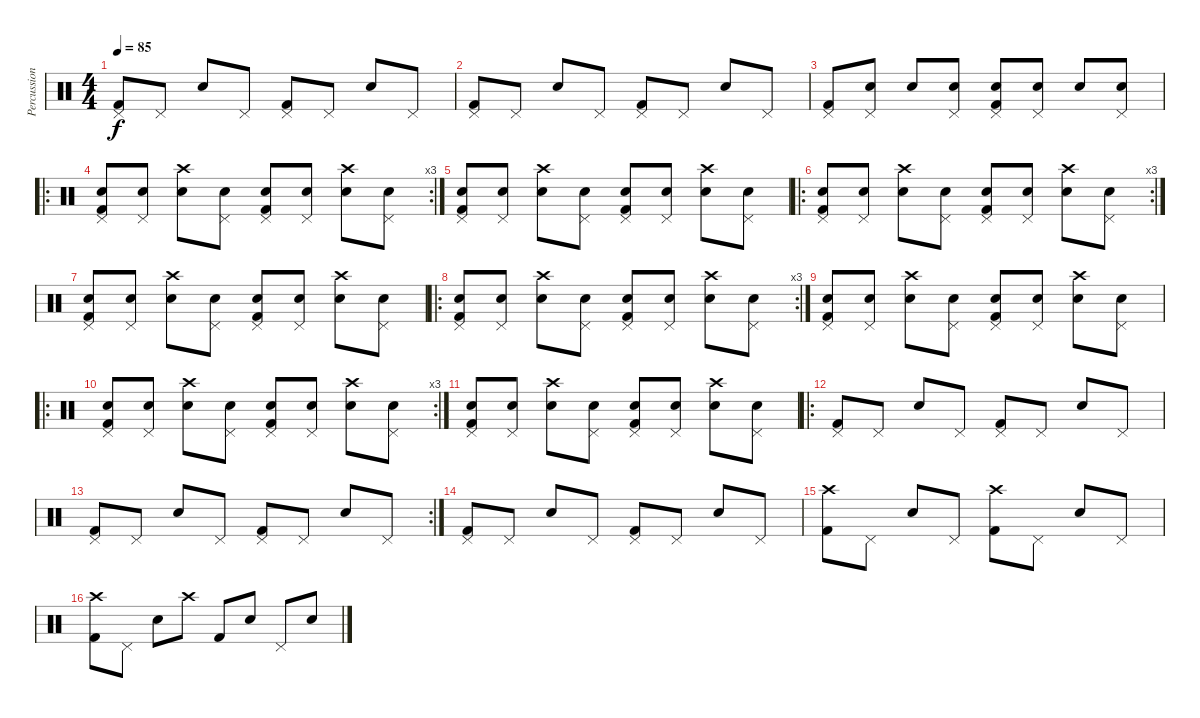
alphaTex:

\track ("Percussion" "Percussion") {instrument percussion}
\staff {score}
\articulation defaults
\ts (4 4)
\tempo 85
\clef neutral
\ks c
("Pedal Hi-Hat (hit)" "Kick (hit) 2").8{dy f} "Pedal Hi-Hat (hit)".8 "Snare (hit) 2".8 "Pedal Hi-Hat (hit)".8 ("Pedal Hi-Hat (hit)" "Kick (hit) 2").8 "Pedal Hi-Hat (hit)".8 "Snare (hit) 2".8 "Pedal Hi-Hat (hit)".8 |
("Pedal Hi-Hat (hit)" "Kick (hit) 2").8 "Pedal Hi-Hat (hit)".8 "Snare (hit) 2".8 "Pedal Hi-Hat (hit)".8 ("Pedal Hi-Hat (hit)" "Kick (hit) 2").8 "Pedal Hi-Hat (hit)".8 "Snare (hit) 2".8 "Pedal Hi-Hat (hit)".8 |
("Pedal Hi-Hat (hit)" "Kick (hit) 2").8 ("Snare (hit) 2" "Pedal Hi-Hat (hit)").8 "Snare (hit) 2".8 ("Snare (hit) 2" "Pedal Hi-Hat (hit)").8 ("Snare (hit) 2" "Pedal Hi-Hat (hit)" "Kick (hit) 2").8 ("Snare (hit) 2" "Pedal Hi-Hat (hit)").8 "Snare (hit) 2".8 ("Snare (hit) 2" "Pedal Hi-Hat (hit)").8 |
\ro
\rc 3
("Pedal Hi-Hat (hit)" "Snare (hit) 2" "Kick (hit) 2").8 ("Pedal Hi-Hat (hit)" "Snare (hit) 2").8 ("Snare (hit) 2" "Crash high (hit)").8 ("Pedal Hi-Hat (hit)" "Snare (hit) 2").8 ("Pedal Hi-Hat (hit)" "Snare (hit) 2" "Kick (hit) 2").8 ("Pedal Hi-Hat (hit)" "Snare (hit) 2").8 ("Snare (hit) 2" "Crash high (hit)").8 ("Pedal Hi-Hat (hit)" "Snare (hit) 2").8 |
("Pedal Hi-Hat (hit)" "Snare (hit) 2" "Kick (hit) 2").8 ("Pedal Hi-Hat (hit)" "Snare (hit) 2").8 ("Snare (hit) 2" "Crash high (hit)").8 ("Pedal Hi-Hat (hit)" "Snare (hit) 2").8 ("Pedal Hi-Hat (hit)" "Snare (hit) 2" "Kick (hit) 2").8 ("Pedal Hi-Hat (hit)" "Snare (hit) 2").8 ("Snare (hit) 2" "Crash high (hit)").8 ("Pedal Hi-Hat (hit)" "Snare (hit) 2").8 |
\ro
\rc 3
("Pedal Hi-Hat (hit)" "Snare (hit) 2" "Kick (hit) 2").8 ("Pedal Hi-Hat (hit)" "Snare (hit) 2").8 ("Snare (hit) 2" "Crash high (hit)").8 ("Pedal Hi-Hat (hit)" "Snare (hit) 2").8 ("Pedal Hi-Hat (hit)" "Snare (hit) 2" "Kick (hit) 2").8 ("Pedal Hi-Hat (hit)" "Snare (hit) 2").8 ("Snare (hit) 2" "Crash high (hit)").8 ("Pedal Hi-Hat (hit)" "Snare (hit) 2").8 |
("Pedal Hi-Hat (hit)" "Snare (hit) 2" "Kick (hit) 2").8 ("Pedal Hi-Hat (hit)" "Snare (hit) 2").8 ("Snare (hit) 2" "Crash high (hit)").8 ("Pedal Hi-Hat (hit)" "Snare (hit) 2").8 ("Pedal Hi-Hat (hit)" "Snare (hit) 2" "Kick (hit) 2").8 ("Pedal Hi-Hat (hit)" "Snare (hit) 2").8 ("Snare (hit) 2" "Crash high (hit)").8 ("Pedal Hi-Hat (hit)" "Snare (hit) 2").8 |
\ro
\rc 3
("Pedal Hi-Hat (hit)" "Snare (hit) 2" "Kick (hit) 2").8 ("Pedal Hi-Hat (hit)" "Snare (hit) 2").8 ("Snare (hit) 2" "Crash high (hit)").8 ("Pedal Hi-Hat (hit)" "Snare (hit) 2").8 ("Pedal Hi-Hat (hit)" "Snare (hit) 2" "Kick (hit) 2").8 ("Pedal Hi-Hat (hit)" "Snare (hit) 2").8 ("Snare (hit) 2" "Crash high (hit)").8 ("Pedal Hi-Hat (hit)" "Snare (hit) 2").8 |
("Pedal Hi-Hat (hit)" "Snare (hit) 2" "Kick (hit) 2").8 ("Pedal Hi-Hat (hit)" "Snare (hit) 2").8 ("Snare (hit) 2" "Crash high (hit)").8 ("Pedal Hi-Hat (hit)" "Snare (hit) 2").8 ("Pedal Hi-Hat (hit)" "Snare (hit) 2" "Kick (hit) 2").8 ("Pedal Hi-Hat (hit)" "Snare (hit) 2").8 ("Snare (hit) 2" "Crash high (hit)").8 ("Pedal Hi-Hat (hit)" "Snare (hit) 2").8 |
\ro
\rc 3
("Pedal Hi-Hat (hit)" "Snare (hit) 2" "Kick (hit) 2").8 ("Pedal Hi-Hat (hit)" "Snare (hit) 2").8 ("Snare (hit) 2" "Crash high (hit)").8 ("Pedal Hi-Hat (hit)" "Snare (hit) 2").8 ("Pedal Hi-Hat (hit)" "Snare (hit) 2" "Kick (hit) 2").8 ("Pedal Hi-Hat (hit)" "Snare (hit) 2").8 ("Snare (hit) 2" "Crash high (hit)").8 ("Pedal Hi-Hat (hit)" "Snare (hit) 2").8 |
("Pedal Hi-Hat (hit)" "Snare (hit) 2" "Kick (hit) 2").8 ("Pedal Hi-Hat (hit)" "Snare (hit) 2").8 ("Snare (hit) 2" "Crash high (hit)").8 ("Pedal Hi-Hat (hit)" "Snare (hit) 2").8 ("Pedal Hi-Hat (hit)" "Snare (hit) 2" "Kick (hit) 2").8 ("Pedal Hi-Hat (hit)" "Snare (hit) 2").8 ("Snare (hit) 2" "Crash high (hit)").8 ("Pedal Hi-Hat (hit)" "Snare (hit) 2").8 |
\ro
("Pedal Hi-Hat (hit)" "Kick (hit) 2").8 "Pedal Hi-Hat (hit)".8 "Snare (hit) 2".8 "Pedal Hi-Hat (hit)".8 ("Pedal Hi-Hat (hit)" "Kick (hit) 2").8 "Pedal Hi-Hat (hit)".8 "Snare (hit) 2".8 "Pedal Hi-Hat (hit)".8 |
\rc 2
("Pedal Hi-Hat (hit)" "Kick (hit) 2").8 "Pedal Hi-Hat (hit)".8 "Snare (hit) 2".8 "Pedal Hi-Hat (hit)".8 ("Pedal Hi-Hat (hit)" "Kick (hit) 2").8 "Pedal Hi-Hat (hit)".8 "Snare (hit) 2".8 "Pedal Hi-Hat (hit)".8 |
("Pedal Hi-Hat (hit)" "Kick (hit) 2").8 "Pedal Hi-Hat (hit)".8 "Snare (hit) 2".8 "Pedal Hi-Hat (hit)".8 ("Pedal Hi-Hat (hit)" "Kick (hit) 2").8 "Pedal Hi-Hat (hit)".8 "Snare (hit) 2".8 "Pedal Hi-Hat (hit)".8 |
("Crash high (hit)" "Kick (hit) 2").8 "Pedal Hi-Hat (hit)".8 "Snare (hit) 2".8 "Pedal Hi-Hat (hit)".8 ("Crash high (hit)" "Kick (hit) 2").8 "Pedal Hi-Hat (hit)".8 "Snare (hit) 2".8 "Pedal Hi-Hat (hit)".8 |
("Crash high (hit)" "Kick (hit) 2").8 "Pedal Hi-Hat (hit)".8 "Snare (hit) 2".8 "Crash high (hit)".8 "Kick (hit) 2".8 "Snare (hit) 2".8 "Pedal Hi-Hat (hit)".8 "Snare (hit) 2".8
